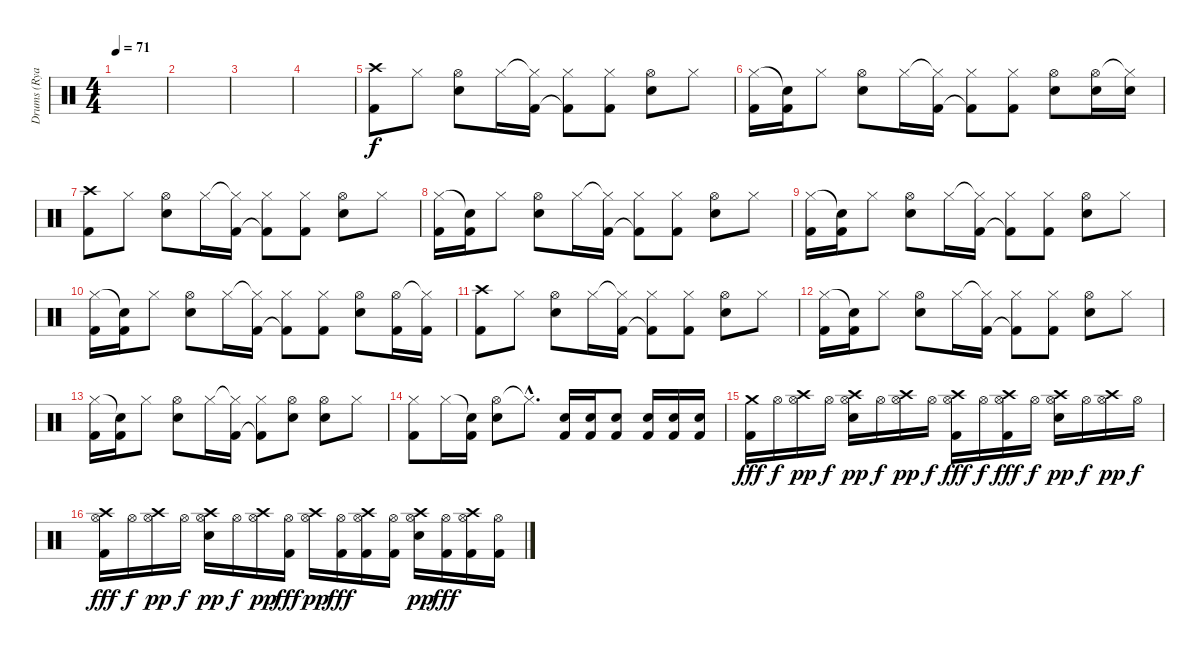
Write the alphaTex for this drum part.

\track ("Drums (Ryan \"Nik\" Vikedal)" "Drums (Rya") {instrument percussion}
\staff {score}
\articulation defaults
\ts (4 4)
\tempo 71
\clef neutral
\ks c
|
|
|
|
("Crash high (hit)" "Kick (hit) 2").8 "Hi-Hat (closed)".8 ("Hi-Hat (open)" "Electric Snare (hit)").8 "Hi-Hat (closed)".16 ("Hi-Hat (closed)"{t} "Kick (hit) 2").16 ("Hi-Hat (closed)" "Kick (hit) 2"{t}).8 ("Hi-Hat (closed)" "Kick (hit) 2").8 ("Hi-Hat (open)" "Electric Snare (hit)").8 "Hi-Hat (closed)".8 |
("Hi-Hat (closed)" "Kick (hit) 2").16 ("Snare (hit)"{t} "Kick (hit) 2").16 "Hi-Hat (closed)".8 ("Hi-Hat (open)" "Electric Snare (hit)").8 "Hi-Hat (closed)".16 ("Hi-Hat (closed)"{t} "Kick (hit) 2").16 ("Hi-Hat (closed)" "Kick (hit) 2"{t}).8 ("Hi-Hat (closed)" "Kick (hit) 2").8 ("Hi-Hat (open)" "Electric Snare (hit)").8 ("Hi-Hat (open)" "Electric Snare (hit)").16 ("Hi-Hat (closed)"{t} "Electric Snare (hit)").16 |
("Crash high (hit)" "Kick (hit) 2").8 "Hi-Hat (closed)".8 ("Hi-Hat (open)" "Electric Snare (hit)").8 "Hi-Hat (closed)".16 ("Hi-Hat (closed)"{t} "Kick (hit) 2").16 ("Hi-Hat (closed)" "Kick (hit) 2"{t}).8 ("Hi-Hat (closed)" "Kick (hit) 2").8 ("Hi-Hat (open)" "Electric Snare (hit)").8 "Hi-Hat (closed)".8 |
("Hi-Hat (closed)" "Kick (hit) 2").16 ("Snare (hit)"{t} "Kick (hit) 2").16 "Hi-Hat (closed)".8 ("Hi-Hat (open)" "Electric Snare (hit)").8 "Hi-Hat (closed)".16 ("Hi-Hat (closed)"{t} "Kick (hit) 2").16 ("Hi-Hat (closed)" "Kick (hit) 2"{t}).8 ("Hi-Hat (closed)" "Kick (hit) 2").8 ("Hi-Hat (open)" "Electric Snare (hit)").8 "Hi-Hat (closed)".8 |
("Hi-Hat (closed)" "Kick (hit) 2").16 ("Snare (hit)"{t} "Kick (hit) 2").16 "Hi-Hat (closed)".8 ("Hi-Hat (open)" "Electric Snare (hit)").8 "Hi-Hat (closed)".16 ("Hi-Hat (closed)"{t} "Kick (hit) 2").16 ("Hi-Hat (closed)" "Kick (hit) 2"{t}).8 ("Hi-Hat (closed)" "Kick (hit) 2").8 ("Hi-Hat (open)" "Electric Snare (hit)").8 "Hi-Hat (closed)".8 |
("Hi-Hat (closed)" "Kick (hit) 2").16 ("Snare (hit)"{t} "Kick (hit) 2").16 "Hi-Hat (closed)".8 ("Hi-Hat (open)" "Electric Snare (hit)").8 "Hi-Hat (closed)".16 ("Hi-Hat (closed)"{t} "Kick (hit) 2").16 ("Hi-Hat (closed)" "Kick (hit) 2"{t}).8 ("Hi-Hat (closed)" "Kick (hit) 2").8 ("Hi-Hat (open)" "Electric Snare (hit)").8 ("Hi-Hat (open)" "Kick (hit) 2").16 ("Hi-Hat (closed)"{t} "Kick (hit) 2").16 |
("Crash high (hit)" "Kick (hit) 2").8 "Hi-Hat (closed)".8 ("Hi-Hat (open)" "Electric Snare (hit)").8 "Hi-Hat (closed)".16 ("Hi-Hat (closed)"{t} "Kick (hit) 2").16 ("Hi-Hat (closed)" "Kick (hit) 2"{t}).8 ("Hi-Hat (closed)" "Kick (hit) 2").8 ("Hi-Hat (open)" "Electric Snare (hit)").8 "Hi-Hat (closed)".8 |
("Hi-Hat (closed)" "Kick (hit) 2").16 ("Snare (hit)"{t} "Kick (hit) 2").16 "Hi-Hat (closed)".8 ("Hi-Hat (open)" "Electric Snare (hit)").8 "Hi-Hat (closed)".16 ("Hi-Hat (closed)"{t} "Kick (hit) 2").16 ("Hi-Hat (closed)" "Kick (hit) 2"{t}).8 ("Hi-Hat (closed)" "Kick (hit) 2").8 ("Hi-Hat (open)" "Electric Snare (hit)").8 "Hi-Hat (closed)".8 |
("Hi-Hat (closed)" "Kick (hit) 2").16 ("Snare (hit)"{t} "Kick (hit) 2").16 "Hi-Hat (closed)".8 ("Hi-Hat (open)" "Electric Snare (hit)").8 "Hi-Hat (closed)".16 ("Hi-Hat (closed)"{t} "Kick (hit) 2").16 ("Hi-Hat (closed)" "Kick (hit) 2"{t}).8 ("Hi-Hat (open)" "Electric Snare (hit)").8 ("Hi-Hat (open)" "Electric Snare (hit)").8 "Hi-Hat (closed)".8 |
("Hi-Hat (closed)" "Kick (hit) 2").8 "Hi-Hat (closed)".16 ("Snare (hit)"{t} "Kick (hit) 2").16 ("Hi-Hat (open)" "Electric Snare (hit)").8 "Hi-Hat (closed)"{hac t}.8{d} ("Electric Snare (hit)" "Kick (hit) 2").16 ("Electric Snare (hit)" "Kick (hit) 2").16 ("Electric Snare (hit)" "Kick (hit) 2").8 ("Electric Snare (hit)" "Kick (hit) 2").16 ("Electric Snare (hit)" "Kick (hit) 2").16 ("Electric Snare (hit)" "Kick (hit) 2").16 |
("Crash medium (hit)" "Kick (hit) 2").16{dy fff} "Hi-Hat (open)".16{dy f} ("Crash high (hit)" "Hi-Hat (open)").16{dy pp} "Hi-Hat (open)".16{dy f} ("Crash high (hit)" "Hi-Hat (open)" "Electric Snare (hit)").16{dy pp} "Hi-Hat (open)".16{dy f} ("Crash high (hit)" "Hi-Hat (open)").16{dy pp} "Hi-Hat (open)".16{dy f} ("Crash high (hit)" "Hi-Hat (open)" "Kick (hit) 2").16{dy fff} "Hi-Hat (open)".16{dy f} ("Crash high (hit)" "Hi-Hat (open)" "Kick (hit) 2").16{dy fff} "Hi-Hat (open)".16{dy f} ("Crash high (hit)" "Hi-Hat (open)" "Electric Snare (hit)").16{dy pp} "Hi-Hat (open)".16{dy f} ("Crash high (hit)" "Hi-Hat (open)").16{dy pp} "Hi-Hat (open)".16{dy f} |
("Crash high (hit)" "Hi-Hat (open)" "Kick (hit) 2").16{dy fff} "Hi-Hat (open)".16{dy f} ("Crash high (hit)" "Hi-Hat (open)").16{dy pp} "Hi-Hat (open)".16{dy f} ("Crash high (hit)" "Hi-Hat (open)" "Electric Snare (hit)").16{dy pp} "Hi-Hat (open)".16{dy f} ("Crash high (hit)" "Hi-Hat (open)").16{dy pp} ("Hi-Hat (open)" "Kick (hit) 2").16{dy fff} ("Crash high (hit)" "Hi-Hat (open)").16{dy pp} ("Hi-Hat (open)" "Kick (hit) 2").16{dy fff} ("Crash high (hit)" "Hi-Hat (open)" "Kick (hit) 2").16 ("Hi-Hat (open)" "Kick (hit) 2").16 ("Crash high (hit)" "Hi-Hat (open)" "Electric Snare (hit)").16{dy pp} ("Hi-Hat (open)" "Kick (hit) 2").16{dy fff} ("Crash high (hit)" "Hi-Hat (open)" "Kick (hit) 2").16 ("Hi-Hat (open)" "Kick (hit) 2").16
